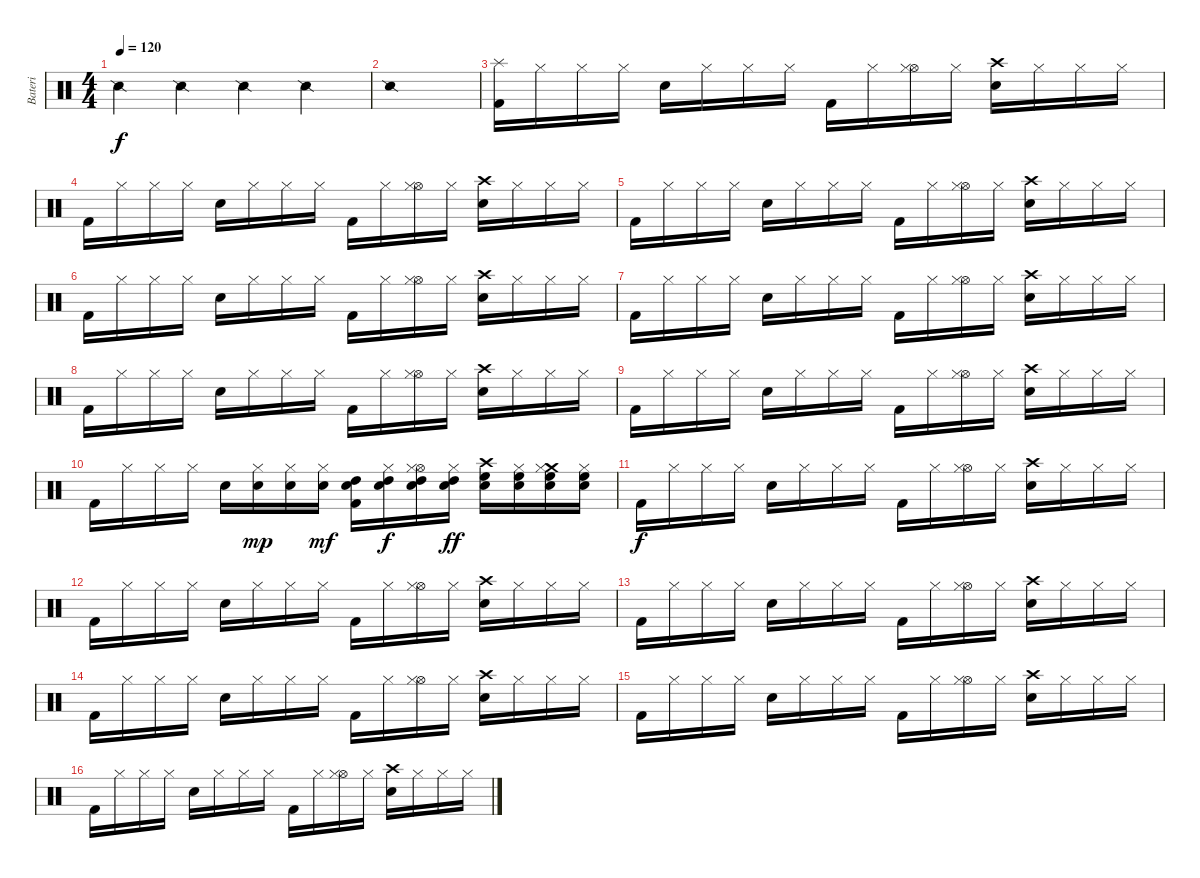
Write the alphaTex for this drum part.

\track ("Bateri" "Bateri") {instrument percussion}
\staff {score}
\articulation defaults
\ts (4 4)
\tempo 120
\clef neutral
\ks c "Snare (side stick) 2".4{dy f} "Snare (side stick) 2".4 "Snare (side stick) 2".4 "Snare (side stick) 2".4
|
"Snare (side stick) 2".1 |
("Splash (hit)" "Kick (hit) 2").16 "Hi-Hat (closed)".16 "Hi-Hat (closed)".16 "Hi-Hat (closed)".16 "Electric Snare (hit)".16 "Hi-Hat (closed)".16 "Hi-Hat (closed)".16 "Hi-Hat (closed)".16 "Kick (hit) 2".16 "Hi-Hat (closed)".16 ("Hi-Hat (open)" "Hi-Hat (closed)").16 "Hi-Hat (closed)".16 ("Crash high (hit)" "Electric Snare (hit)").16 "Hi-Hat (closed)".16 "Hi-Hat (closed)".16 "Hi-Hat (closed)".16 |
"Kick (hit) 2".16 "Hi-Hat (closed)".16 "Hi-Hat (closed)".16 "Hi-Hat (closed)".16 "Electric Snare (hit)".16 "Hi-Hat (closed)".16 "Hi-Hat (closed)".16 "Hi-Hat (closed)".16 "Kick (hit) 2".16 "Hi-Hat (closed)".16 ("Hi-Hat (open)" "Hi-Hat (closed)").16 "Hi-Hat (closed)".16 ("Crash high (hit)" "Electric Snare (hit)").16 "Hi-Hat (closed)".16 "Hi-Hat (closed)".16 "Hi-Hat (closed)".16 |
"Kick (hit) 2".16 "Hi-Hat (closed)".16 "Hi-Hat (closed)".16 "Hi-Hat (closed)".16 "Electric Snare (hit)".16 "Hi-Hat (closed)".16 "Hi-Hat (closed)".16 "Hi-Hat (closed)".16 "Kick (hit) 2".16 "Hi-Hat (closed)".16 ("Hi-Hat (open)" "Hi-Hat (closed)").16 "Hi-Hat (closed)".16 ("Crash high (hit)" "Electric Snare (hit)").16 "Hi-Hat (closed)".16 "Hi-Hat (closed)".16 "Hi-Hat (closed)".16 |
"Kick (hit) 2".16 "Hi-Hat (closed)".16 "Hi-Hat (closed)".16 "Hi-Hat (closed)".16 "Electric Snare (hit)".16 "Hi-Hat (closed)".16 "Hi-Hat (closed)".16 "Hi-Hat (closed)".16 "Kick (hit) 2".16 "Hi-Hat (closed)".16 ("Hi-Hat (open)" "Hi-Hat (closed)").16 "Hi-Hat (closed)".16 ("Crash high (hit)" "Electric Snare (hit)").16 "Hi-Hat (closed)".16 "Hi-Hat (closed)".16 "Hi-Hat (closed)".16 |
"Kick (hit) 2".16 "Hi-Hat (closed)".16 "Hi-Hat (closed)".16 "Hi-Hat (closed)".16 "Electric Snare (hit)".16 "Hi-Hat (closed)".16 "Hi-Hat (closed)".16 "Hi-Hat (closed)".16 "Kick (hit) 2".16 "Hi-Hat (closed)".16 ("Hi-Hat (open)" "Hi-Hat (closed)").16 "Hi-Hat (closed)".16 ("Crash high (hit)" "Electric Snare (hit)").16 "Hi-Hat (closed)".16 "Hi-Hat (closed)".16 "Hi-Hat (closed)".16 |
"Kick (hit) 2".16 "Hi-Hat (closed)".16 "Hi-Hat (closed)".16 "Hi-Hat (closed)".16 "Electric Snare (hit)".16 "Hi-Hat (closed)".16 "Hi-Hat (closed)".16 "Hi-Hat (closed)".16 "Kick (hit) 2".16 "Hi-Hat (closed)".16 ("Hi-Hat (open)" "Hi-Hat (closed)").16 "Hi-Hat (closed)".16 ("Crash high (hit)" "Electric Snare (hit)").16 "Hi-Hat (closed)".16 "Hi-Hat (closed)".16 "Hi-Hat (closed)".16 |
"Kick (hit) 2".16 "Hi-Hat (closed)".16 "Hi-Hat (closed)".16 "Hi-Hat (closed)".16 "Electric Snare (hit)".16 "Hi-Hat (closed)".16 "Hi-Hat (closed)".16 "Hi-Hat (closed)".16 "Kick (hit) 2".16 "Hi-Hat (closed)".16 ("Hi-Hat (open)" "Hi-Hat (closed)").16 "Hi-Hat (closed)".16 ("Crash high (hit)" "Electric Snare (hit)").16 "Hi-Hat (closed)".16 "Hi-Hat (closed)".16 "Hi-Hat (closed)".16 |
"Kick (hit) 2".16 "Hi-Hat (closed)".16 "Hi-Hat (closed)".16 "Hi-Hat (closed)".16 "Electric Snare (hit)".16 ("Hi-Hat (closed)" "Electric Snare (hit)").16{dy mp} ("Hi-Hat (closed)" "Electric Snare (hit)").16 ("Hi-Hat (closed)" "Electric Snare (hit)").16{dy mf} ("Kick (hit) 2" "Electric Snare (hit)" "High Tom (hit)").16 ("Hi-Hat (closed)" "Electric Snare (hit)" "High Tom (hit)").16{dy f} ("Hi-Hat (open)" "Hi-Hat (closed)" "Electric Snare (hit)" "High Tom (hit)").16 ("Hi-Hat (closed)" "Electric Snare (hit)" "High Tom (hit)").16{dy ff} ("Crash high (hit)" "Electric Snare (hit)" "High Floor Tom (hit)").16 ("Electric Snare (hit)" "Hi-Hat (closed)" "High Floor Tom (hit)").16 ("Crash medium (hit)" "Hi-Hat (closed)" "High Floor Tom (hit)" "Electric Snare (hit)").16 ("Electric Snare (hit)" "Hi-Hat (closed)" "High Floor Tom (hit)").16 |
"Kick (hit) 2".16{dy f} "Hi-Hat (closed)".16 "Hi-Hat (closed)".16 "Hi-Hat (closed)".16 "Electric Snare (hit)".16 "Hi-Hat (closed)".16 "Hi-Hat (closed)".16 "Hi-Hat (closed)".16 "Kick (hit) 2".16 "Hi-Hat (closed)".16 ("Hi-Hat (open)" "Hi-Hat (closed)").16 "Hi-Hat (closed)".16 ("Crash high (hit)" "Electric Snare (hit)").16 "Hi-Hat (closed)".16 "Hi-Hat (closed)".16 "Hi-Hat (closed)".16 |
"Kick (hit) 2".16 "Hi-Hat (closed)".16 "Hi-Hat (closed)".16 "Hi-Hat (closed)".16 "Electric Snare (hit)".16 "Hi-Hat (closed)".16 "Hi-Hat (closed)".16 "Hi-Hat (closed)".16 "Kick (hit) 2".16 "Hi-Hat (closed)".16 ("Hi-Hat (open)" "Hi-Hat (closed)").16 "Hi-Hat (closed)".16 ("Crash high (hit)" "Electric Snare (hit)").16 "Hi-Hat (closed)".16 "Hi-Hat (closed)".16 "Hi-Hat (closed)".16 |
"Kick (hit) 2".16 "Hi-Hat (closed)".16 "Hi-Hat (closed)".16 "Hi-Hat (closed)".16 "Electric Snare (hit)".16 "Hi-Hat (closed)".16 "Hi-Hat (closed)".16 "Hi-Hat (closed)".16 "Kick (hit) 2".16 "Hi-Hat (closed)".16 ("Hi-Hat (open)" "Hi-Hat (closed)").16 "Hi-Hat (closed)".16 ("Crash high (hit)" "Electric Snare (hit)").16 "Hi-Hat (closed)".16 "Hi-Hat (closed)".16 "Hi-Hat (closed)".16 |
"Kick (hit) 2".16 "Hi-Hat (closed)".16 "Hi-Hat (closed)".16 "Hi-Hat (closed)".16 "Electric Snare (hit)".16 "Hi-Hat (closed)".16 "Hi-Hat (closed)".16 "Hi-Hat (closed)".16 "Kick (hit) 2".16 "Hi-Hat (closed)".16 ("Hi-Hat (open)" "Hi-Hat (closed)").16 "Hi-Hat (closed)".16 ("Crash high (hit)" "Electric Snare (hit)").16 "Hi-Hat (closed)".16 "Hi-Hat (closed)".16 "Hi-Hat (closed)".16 |
"Kick (hit) 2".16 "Hi-Hat (closed)".16 "Hi-Hat (closed)".16 "Hi-Hat (closed)".16 "Electric Snare (hit)".16 "Hi-Hat (closed)".16 "Hi-Hat (closed)".16 "Hi-Hat (closed)".16 "Kick (hit) 2".16 "Hi-Hat (closed)".16 ("Hi-Hat (open)" "Hi-Hat (closed)").16 "Hi-Hat (closed)".16 ("Crash high (hit)" "Electric Snare (hit)").16 "Hi-Hat (closed)".16 "Hi-Hat (closed)".16 "Hi-Hat (closed)".16 |
"Kick (hit) 2".16 "Hi-Hat (closed)".16 "Hi-Hat (closed)".16 "Hi-Hat (closed)".16 "Electric Snare (hit)".16 "Hi-Hat (closed)".16 "Hi-Hat (closed)".16 "Hi-Hat (closed)".16 "Kick (hit) 2".16 "Hi-Hat (closed)".16 ("Hi-Hat (open)" "Hi-Hat (closed)").16 "Hi-Hat (closed)".16 ("Crash high (hit)" "Electric Snare (hit)").16 "Hi-Hat (closed)".16 "Hi-Hat (closed)".16 "Hi-Hat (closed)".16
